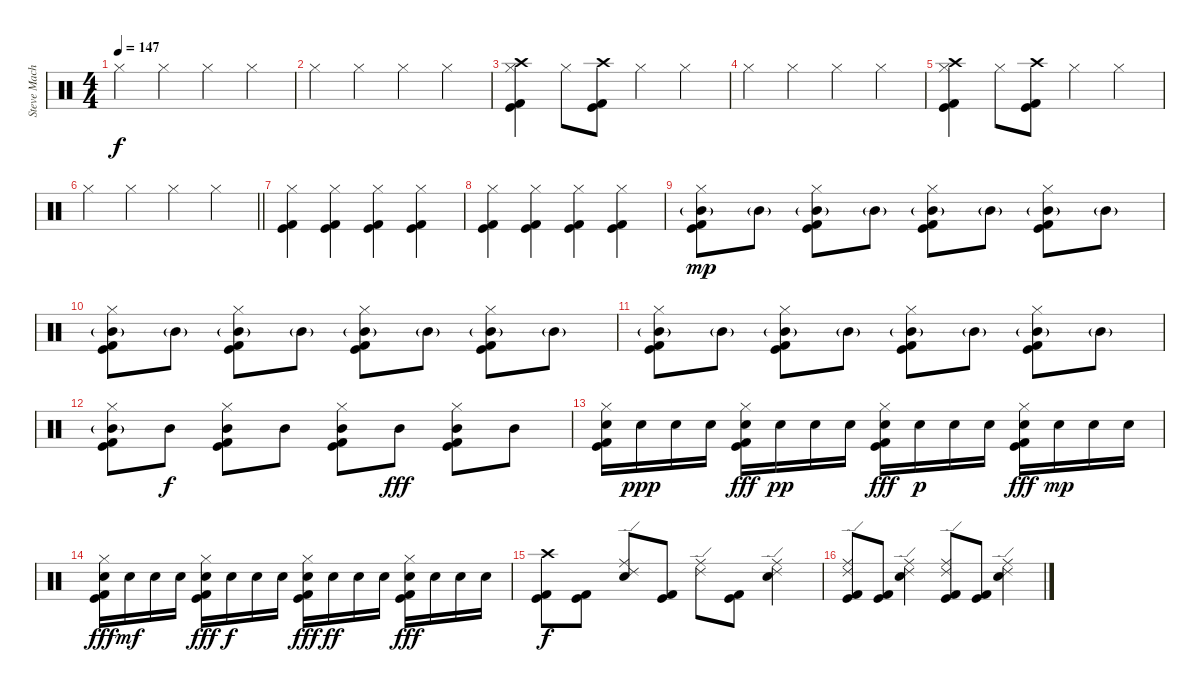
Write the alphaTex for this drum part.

\track ("Steve Machine West" "Steve Mach") {instrument percussion}
\staff {score}
\articulation defaults
\ts (4 4)
\tempo 147
\clef neutral
\ks c "Hi-Hat (closed)".4{dy f} "Hi-Hat (closed)".4 "Hi-Hat (closed)".4 "Hi-Hat (closed)".4
|
"Hi-Hat (closed)".4 "Hi-Hat (closed)".4 "Hi-Hat (closed)".4 "Hi-Hat (closed)".4 |
("Crash high (hit)" "Hi-Hat (closed)" "Kick (hit)" "Kick (hit) 2").4 "Hi-Hat (closed)".8 ("Crash high (hit)" "Kick (hit)" "Kick (hit) 2").8 "Hi-Hat (closed)".4 "Hi-Hat (closed)".4 |
"Hi-Hat (closed)".4 "Hi-Hat (closed)".4 "Hi-Hat (closed)".4 "Hi-Hat (closed)".4 |
("Crash high (hit)" "Hi-Hat (closed)" "Kick (hit)" "Kick (hit) 2").4 "Hi-Hat (closed)".8 ("Crash high (hit)" "Kick (hit)" "Kick (hit) 2").8 "Hi-Hat (closed)".4 "Hi-Hat (closed)".4 |
\barLineRight lightlight "Hi-Hat (closed)".4 "Hi-Hat (closed)".4 "Hi-Hat (closed)".4 "Hi-Hat (closed)".4
|
("Hi-Hat (closed)" "Kick (hit)" "Kick (hit) 2").4 ("Hi-Hat (closed)" "Kick (hit)" "Kick (hit) 2").4 ("Hi-Hat (closed)" "Kick (hit)" "Kick (hit) 2").4 ("Hi-Hat (closed)" "Kick (hit)" "Kick (hit) 2").4 |
("Hi-Hat (closed)" "Kick (hit)" "Kick (hit) 2").4 ("Hi-Hat (closed)" "Kick (hit)" "Kick (hit) 2").4 ("Hi-Hat (closed)" "Kick (hit)" "Kick (hit) 2").4 ("Hi-Hat (closed)" "Kick (hit)" "Kick (hit) 2").4 |
("Hi-Hat (closed)" "Mid Tom (hit)"{g} "Kick (hit)" "Kick (hit) 2").8{dy mp} "Mid Tom (hit)"{g}.8 ("Hi-Hat (closed)" "Mid Tom (hit)"{g} "Kick (hit)" "Kick (hit) 2").8 "Mid Tom (hit)"{g}.8 ("Hi-Hat (closed)" "Mid Tom (hit)"{g} "Kick (hit)" "Kick (hit) 2").8 "Mid Tom (hit)"{g}.8 ("Hi-Hat (closed)" "Mid Tom (hit)"{g} "Kick (hit)" "Kick (hit) 2").8 "Mid Tom (hit)"{g}.8 |
("Hi-Hat (closed)" "Mid Tom (hit)"{g} "Kick (hit)" "Kick (hit) 2").8 "Mid Tom (hit)"{g}.8 ("Hi-Hat (closed)" "Mid Tom (hit)"{g} "Kick (hit)" "Kick (hit) 2").8 "Mid Tom (hit)"{g}.8 ("Hi-Hat (closed)" "Mid Tom (hit)"{g} "Kick (hit)" "Kick (hit) 2").8 "Mid Tom (hit)"{g}.8 ("Hi-Hat (closed)" "Mid Tom (hit)"{g} "Kick (hit)" "Kick (hit) 2").8 "Mid Tom (hit)"{g}.8 |
("Hi-Hat (closed)" "Mid Tom (hit)"{g} "Kick (hit)" "Kick (hit) 2").8 "Mid Tom (hit)"{g}.8 ("Hi-Hat (closed)" "Mid Tom (hit)"{g} "Kick (hit)" "Kick (hit) 2").8 "Mid Tom (hit)"{g}.8 ("Hi-Hat (closed)" "Mid Tom (hit)"{g} "Kick (hit)" "Kick (hit) 2").8 "Mid Tom (hit)"{g}.8 ("Hi-Hat (closed)" "Mid Tom (hit)"{g} "Kick (hit)" "Kick (hit) 2").8 "Mid Tom (hit)"{g}.8 |
("Hi-Hat (closed)" "Mid Tom (hit)"{g} "Kick (hit)" "Kick (hit) 2").8 "Mid Tom (hit)".8{dy f} ("Hi-Hat (closed)" "Mid Tom (hit)" "Kick (hit)" "Kick (hit) 2").8 "Mid Tom (hit)".8 ("Hi-Hat (closed)" "Mid Tom (hit)" "Kick (hit)" "Kick (hit) 2").8 "Mid Tom (hit)".8{dy fff} ("Hi-Hat (closed)" "Mid Tom (hit)" "Kick (hit)" "Kick (hit) 2").8 "Mid Tom (hit)".8 |
("Hi-Hat (closed)" "Electric Snare (hit)" "Kick (hit)" "Kick (hit) 2").16 "Electric Snare (hit)".16{dy ppp} "Electric Snare (hit)".16 "Electric Snare (hit)".16 ("Hi-Hat (closed)" "Electric Snare (hit)" "Kick (hit)" "Kick (hit) 2").16{dy fff} "Electric Snare (hit)".16{dy pp} "Electric Snare (hit)".16 "Electric Snare (hit)".16 ("Hi-Hat (closed)" "Electric Snare (hit)" "Kick (hit)" "Kick (hit) 2").16{dy fff} "Electric Snare (hit)".16{dy p} "Electric Snare (hit)".16 "Electric Snare (hit)".16 ("Hi-Hat (closed)" "Electric Snare (hit)" "Kick (hit)" "Kick (hit) 2").16{dy fff} "Electric Snare (hit)".16{dy mp} "Electric Snare (hit)".16 "Electric Snare (hit)".16 |
("Hi-Hat (closed)" "Electric Snare (hit)" "Kick (hit)" "Kick (hit) 2").16{dy fff} "Electric Snare (hit)".16{dy mf} "Electric Snare (hit)".16 "Electric Snare (hit)".16 ("Hi-Hat (closed)" "Electric Snare (hit)" "Kick (hit)" "Kick (hit) 2").16{dy fff} "Electric Snare (hit)".16{dy f} "Electric Snare (hit)".16 "Electric Snare (hit)".16 ("Hi-Hat (closed)" "Electric Snare (hit)" "Kick (hit)" "Kick (hit) 2").16{dy fff} "Electric Snare (hit)".16{dy ff} "Electric Snare (hit)".16 "Electric Snare (hit)".16 ("Hi-Hat (closed)" "Electric Snare (hit)" "Kick (hit)" "Kick (hit) 2").16{dy fff} "Electric Snare (hit)".16 "Electric Snare (hit)".16 "Electric Snare (hit)".16 |
("Crash high (hit)" "Kick (hit)" "Kick (hit) 2").8{dy f} ("Kick (hit)" "Kick (hit) 2").8 ("Ride (middle)" "Ride (edge) 2" "Electric Snare (hit)").8 ("Kick (hit)" "Kick (hit) 2").8 ("Ride (middle)" "Ride (edge) 2").8 ("Kick (hit)" "Kick (hit) 2").8 ("Ride (middle)" "Ride (edge) 2" "Electric Snare (hit)").4 |
("Ride (middle)" "Ride (edge) 2" "Kick (hit)" "Kick (hit) 2").8 ("Kick (hit)" "Kick (hit) 2").8 ("Ride (middle)" "Ride (edge) 2" "Electric Snare (hit)").4 ("Ride (middle)" "Ride (edge) 2" "Kick (hit)" "Kick (hit) 2").8 ("Kick (hit)" "Kick (hit) 2").8 ("Ride (middle)" "Ride (edge) 2" "Electric Snare (hit)").4
